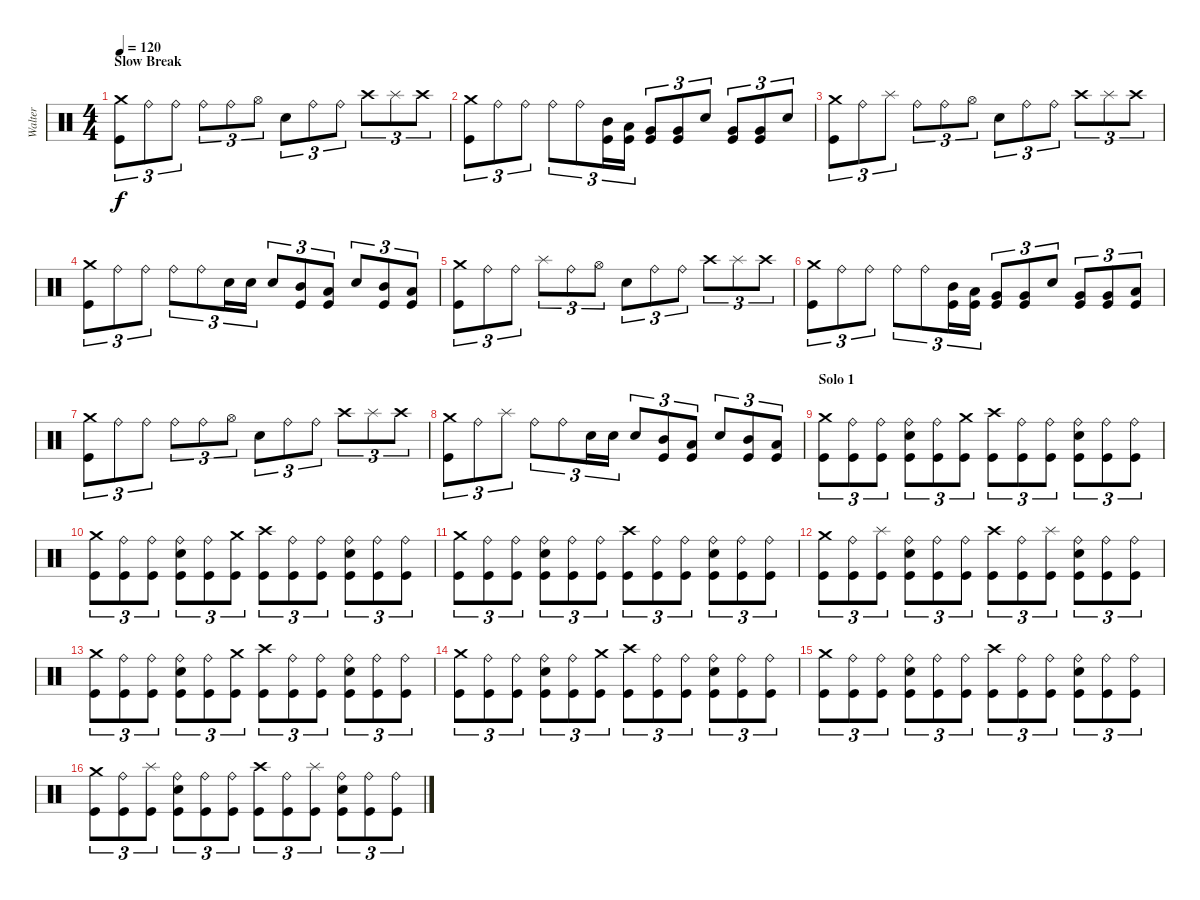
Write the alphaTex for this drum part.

\track ("Walter" "Walter") {instrument percussion}
\staff {score}
\articulation defaults
\ts (4 4)
\section ("" "Slow Break")
\tempo 120
\clef neutral
\ks c
("Crash medium (hit)" "Kick (hit)").8{tu (3 2) dy f} "Ride (bell)".8{tu (3 2)} "Ride (bell)".8{tu (3 2)} "Ride (bell)".8{tu (3 2)} "Ride (bell)".8{tu (3 2)} "Hi-Hat (open)".8{tu (3 2)} "Electric Snare (hit)".8{tu (3 2)} "Ride (bell)".8{tu (3 2)} "Ride (bell)".8{tu (3 2)} "Crash high (hit)".8{tu (3 2)} "Splash (hit)".8{tu (3 2)} "Crash high (hit)".8{tu (3 2)} |
("Crash medium (hit)" "Kick (hit)").8{tu (3 2)} "Ride (bell)".8{tu (3 2)} "Ride (bell)".8{tu (3 2)} "Ride (bell)".8{tu (3 2)} "Ride (bell)".8{tu (3 2)} ("Mid Tom (hit)" "Kick (hit)").16{tu (3 2)} ("Low Tom (hit)" "Kick (hit)").16{tu (3 2)} ("Very Low Tom (hit)" "Kick (hit)").8{tu (3 2)} ("Very Low Tom (hit)" "Kick (hit)").8{tu (3 2)} "Electric Snare (hit)".8{tu (3 2)} ("Very Low Tom (hit)" "Kick (hit)").8{tu (3 2)} ("Very Low Tom (hit)" "Kick (hit)").8{tu (3 2)} "Electric Snare (hit)".8{tu (3 2)} |
("Crash medium (hit)" "Kick (hit)").8{tu (3 2)} "Ride (bell)".8{tu (3 2)} "Splash (hit)".8{tu (3 2)} "Ride (bell)".8{tu (3 2)} "Ride (bell)".8{tu (3 2)} "Hi-Hat (open)".8{tu (3 2)} "Electric Snare (hit)".8{tu (3 2)} "Ride (bell)".8{tu (3 2)} "Ride (bell)".8{tu (3 2)} "Crash high (hit)".8{tu (3 2)} "Splash (hit)".8{tu (3 2)} "Crash high (hit)".8{tu (3 2)} |
("Crash medium (hit)" "Kick (hit)").8{tu (3 2)} "Ride (bell)".8{tu (3 2)} "Ride (bell)".8{tu (3 2)} "Ride (bell)".8{tu (3 2)} "Ride (bell)".8{tu (3 2)} "Electric Snare (hit)".16{tu (3 2)} "Electric Snare (hit)".16{tu (3 2)} "Electric Snare (hit)".8{tu (3 2)} ("Mid Tom (hit)" "Kick (hit)").8{tu (3 2)} ("Low Tom (hit)" "Kick (hit)").8{tu (3 2)} "Electric Snare (hit)".8{tu (3 2)} ("Mid Tom (hit)" "Kick (hit)").8{tu (3 2)} ("Low Tom (hit)" "Kick (hit)").8{tu (3 2)} |
("Crash medium (hit)" "Kick (hit)").8{tu (3 2)} "Ride (bell)".8{tu (3 2)} "Ride (bell)".8{tu (3 2)} "Splash (hit)".8{tu (3 2)} "Ride (bell)".8{tu (3 2)} "Hi-Hat (open)".8{tu (3 2)} "Electric Snare (hit)".8{tu (3 2)} "Ride (bell)".8{tu (3 2)} "Ride (bell)".8{tu (3 2)} "Crash high (hit)".8{tu (3 2)} "Splash (hit)".8{tu (3 2)} "Crash high (hit)".8{tu (3 2)} |
("Crash medium (hit)" "Kick (hit)").8{tu (3 2)} "Ride (bell)".8{tu (3 2)} "Ride (bell)".8{tu (3 2)} "Ride (bell)".8{tu (3 2)} "Ride (bell)".8{tu (3 2)} ("Mid Tom (hit)" "Kick (hit)").16{tu (3 2)} ("Low Tom (hit)" "Kick (hit)").16{tu (3 2)} ("Very Low Tom (hit)" "Kick (hit)").8{tu (3 2)} ("Very Low Tom (hit)" "Kick (hit)").8{tu (3 2)} "Electric Snare (hit)".8{tu (3 2)} ("Very Low Tom (hit)" "Kick (hit)").8{tu (3 2)} ("Very Low Tom (hit)" "Kick (hit)").8{tu (3 2)} ("Low Floor Tom (hit)" "Kick (hit)").8{tu (3 2)} |
("Crash medium (hit)" "Kick (hit)").8{tu (3 2)} "Ride (bell)".8{tu (3 2)} "Ride (bell)".8{tu (3 2)} "Ride (bell)".8{tu (3 2)} "Ride (bell)".8{tu (3 2)} "Hi-Hat (open)".8{tu (3 2)} "Electric Snare (hit)".8{tu (3 2)} "Ride (bell)".8{tu (3 2)} "Ride (bell)".8{tu (3 2)} "Crash high (hit)".8{tu (3 2)} "Splash (hit)".8{tu (3 2)} "Crash high (hit)".8{tu (3 2)} |
("Crash medium (hit)" "Kick (hit)").8{tu (3 2)} "Ride (bell)".8{tu (3 2)} "Splash (hit)".8{tu (3 2)} "Ride (bell)".8{tu (3 2)} "Ride (bell)".8{tu (3 2)} "Electric Snare (hit)".16{tu (3 2)} "Electric Snare (hit)".16{tu (3 2)} "Electric Snare (hit)".8{tu (3 2)} ("Mid Tom (hit)" "Kick (hit)").8{tu (3 2)} ("Low Tom (hit)" "Kick (hit)").8{tu (3 2)} "Electric Snare (hit)".8{tu (3 2)} ("Mid Tom (hit)" "Kick (hit)").8{tu (3 2)} ("Low Tom (hit)" "Kick (hit)").8{tu (3 2)} |
\section ("" "Solo 1")
("Crash medium (hit)" "Kick (hit)").8{tu (3 2)} ("Ride (bell)" "Kick (hit)").8{tu (3 2)} ("Ride (bell)" "Kick (hit)").8{tu (3 2)} ("Ride (bell)" "Electric Snare (hit)" "Kick (hit)").8{tu (3 2)} ("Ride (bell)" "Kick (hit)").8{tu (3 2)} ("Crash medium (hit)" "Kick (hit)").8{tu (3 2)} ("Crash high (hit)" "Kick (hit)").8{tu (3 2)} ("Ride (bell)" "Kick (hit)").8{tu (3 2)} ("Ride (bell)" "Kick (hit)").8{tu (3 2)} ("Ride (bell)" "Electric Snare (hit)" "Kick (hit)").8{tu (3 2)} ("Ride (bell)" "Kick (hit)").8{tu (3 2)} ("Ride (bell)" "Kick (hit)").8{tu (3 2)} |
("Crash medium (hit)" "Kick (hit)").8{tu (3 2)} ("Ride (bell)" "Kick (hit)").8{tu (3 2)} ("Ride (bell)" "Kick (hit)").8{tu (3 2)} ("Ride (bell)" "Electric Snare (hit)" "Kick (hit)").8{tu (3 2)} ("Ride (bell)" "Kick (hit)").8{tu (3 2)} ("Crash medium (hit)" "Kick (hit)").8{tu (3 2)} ("Crash high (hit)" "Kick (hit)").8{tu (3 2)} ("Ride (bell)" "Kick (hit)").8{tu (3 2)} ("Ride (bell)" "Kick (hit)").8{tu (3 2)} ("Ride (bell)" "Electric Snare (hit)" "Kick (hit)").8{tu (3 2)} ("Ride (bell)" "Kick (hit)").8{tu (3 2)} ("Ride (bell)" "Kick (hit)").8{tu (3 2)} |
("Crash medium (hit)" "Kick (hit)").8{tu (3 2)} ("Ride (bell)" "Kick (hit)").8{tu (3 2)} ("Ride (bell)" "Kick (hit)").8{tu (3 2)} ("Ride (bell)" "Electric Snare (hit)" "Kick (hit)").8{tu (3 2)} ("Ride (bell)" "Kick (hit)").8{tu (3 2)} ("Ride (bell)" "Kick (hit)").8{tu (3 2)} ("Crash high (hit)" "Kick (hit)").8{tu (3 2)} ("Ride (bell)" "Kick (hit)").8{tu (3 2)} ("Ride (bell)" "Kick (hit)").8{tu (3 2)} ("Ride (bell)" "Electric Snare (hit)" "Kick (hit)").8{tu (3 2)} ("Ride (bell)" "Kick (hit)").8{tu (3 2)} ("Ride (bell)" "Kick (hit)").8{tu (3 2)} |
("Crash medium (hit)" "Kick (hit)").8{tu (3 2)} ("Ride (bell)" "Kick (hit)").8{tu (3 2)} ("Splash (hit)" "Kick (hit)").8{tu (3 2)} ("Ride (bell)" "Electric Snare (hit)" "Kick (hit)").8{tu (3 2)} ("Ride (bell)" "Kick (hit)").8{tu (3 2)} ("Ride (bell)" "Kick (hit)").8{tu (3 2)} ("Crash high (hit)" "Kick (hit)").8{tu (3 2)} ("Ride (bell)" "Kick (hit)").8{tu (3 2)} ("Splash (hit)" "Kick (hit)").8{tu (3 2)} ("Ride (bell)" "Electric Snare (hit)" "Kick (hit)").8{tu (3 2)} ("Ride (bell)" "Kick (hit)").8{tu (3 2)} ("Ride (bell)" "Kick (hit)").8{tu (3 2)} |
("Crash medium (hit)" "Kick (hit)").8{tu (3 2)} ("Ride (bell)" "Kick (hit)").8{tu (3 2)} ("Ride (bell)" "Kick (hit)").8{tu (3 2)} ("Ride (bell)" "Electric Snare (hit)" "Kick (hit)").8{tu (3 2)} ("Ride (bell)" "Kick (hit)").8{tu (3 2)} ("Crash medium (hit)" "Kick (hit)").8{tu (3 2)} ("Crash high (hit)" "Kick (hit)").8{tu (3 2)} ("Ride (bell)" "Kick (hit)").8{tu (3 2)} ("Ride (bell)" "Kick (hit)").8{tu (3 2)} ("Ride (bell)" "Electric Snare (hit)" "Kick (hit)").8{tu (3 2)} ("Ride (bell)" "Kick (hit)").8{tu (3 2)} ("Ride (bell)" "Kick (hit)").8{tu (3 2)} |
("Crash medium (hit)" "Kick (hit)").8{tu (3 2)} ("Ride (bell)" "Kick (hit)").8{tu (3 2)} ("Ride (bell)" "Kick (hit)").8{tu (3 2)} ("Ride (bell)" "Electric Snare (hit)" "Kick (hit)").8{tu (3 2)} ("Ride (bell)" "Kick (hit)").8{tu (3 2)} ("Crash medium (hit)" "Kick (hit)").8{tu (3 2)} ("Crash high (hit)" "Kick (hit)").8{tu (3 2)} ("Ride (bell)" "Kick (hit)").8{tu (3 2)} ("Ride (bell)" "Kick (hit)").8{tu (3 2)} ("Ride (bell)" "Electric Snare (hit)" "Kick (hit)").8{tu (3 2)} ("Ride (bell)" "Kick (hit)").8{tu (3 2)} ("Ride (bell)" "Kick (hit)").8{tu (3 2)} |
("Crash medium (hit)" "Kick (hit)").8{tu (3 2)} ("Ride (bell)" "Kick (hit)").8{tu (3 2)} ("Ride (bell)" "Kick (hit)").8{tu (3 2)} ("Ride (bell)" "Electric Snare (hit)" "Kick (hit)").8{tu (3 2)} ("Ride (bell)" "Kick (hit)").8{tu (3 2)} ("Ride (bell)" "Kick (hit)").8{tu (3 2)} ("Crash high (hit)" "Kick (hit)").8{tu (3 2)} ("Ride (bell)" "Kick (hit)").8{tu (3 2)} ("Ride (bell)" "Kick (hit)").8{tu (3 2)} ("Ride (bell)" "Electric Snare (hit)" "Kick (hit)").8{tu (3 2)} ("Ride (bell)" "Kick (hit)").8{tu (3 2)} ("Ride (bell)" "Kick (hit)").8{tu (3 2)} |
("Crash medium (hit)" "Kick (hit)").8{tu (3 2)} ("Ride (bell)" "Kick (hit)").8{tu (3 2)} ("Splash (hit)" "Kick (hit)").8{tu (3 2)} ("Ride (bell)" "Electric Snare (hit)" "Kick (hit)").8{tu (3 2)} ("Ride (bell)" "Kick (hit)").8{tu (3 2)} ("Ride (bell)" "Kick (hit)").8{tu (3 2)} ("Crash high (hit)" "Kick (hit)").8{tu (3 2)} ("Ride (bell)" "Kick (hit)").8{tu (3 2)} ("Splash (hit)" "Kick (hit)").8{tu (3 2)} ("Ride (bell)" "Electric Snare (hit)" "Kick (hit)").8{tu (3 2)} ("Ride (bell)" "Kick (hit)").8{tu (3 2)} ("Ride (bell)" "Kick (hit)").8{tu (3 2)}
